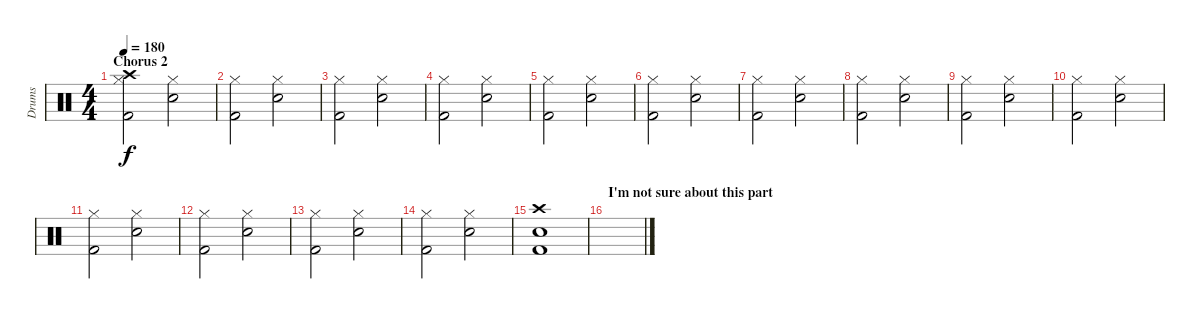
\track ("Drums" "Drums") {instrument percussion}
\staff {score}
\articulation defaults
\ts (4 4)
\section ("" "Chorus 2")
\tempo 180
\clef neutral
\ks c
("Crash high (hit)" "Hi-Hat (closed)" "Kick (hit) 2").2{dy f} ("Hi-Hat (closed)" "Snare (hit) 2").2 |
("Hi-Hat (closed)" "Kick (hit) 2").2 ("Hi-Hat (closed)" "Snare (hit) 2").2 |
("Hi-Hat (closed)" "Kick (hit) 2").2 ("Hi-Hat (closed)" "Snare (hit) 2").2 |
("Hi-Hat (closed)" "Kick (hit) 2").2 ("Hi-Hat (closed)" "Snare (hit) 2").2 |
("Hi-Hat (closed)" "Kick (hit) 2").2 ("Hi-Hat (closed)" "Snare (hit) 2").2 |
("Hi-Hat (closed)" "Kick (hit) 2").2 ("Hi-Hat (closed)" "Snare (hit) 2").2 |
("Hi-Hat (closed)" "Kick (hit) 2").2 ("Hi-Hat (closed)" "Snare (hit) 2").2 |
("Hi-Hat (closed)" "Kick (hit) 2").2 ("Hi-Hat (closed)" "Snare (hit) 2").2 |
("Hi-Hat (closed)" "Kick (hit) 2").2 ("Hi-Hat (closed)" "Snare (hit) 2").2 |
("Hi-Hat (closed)" "Kick (hit) 2").2 ("Hi-Hat (closed)" "Snare (hit) 2").2 |
("Hi-Hat (closed)" "Kick (hit) 2").2 ("Hi-Hat (closed)" "Snare (hit) 2").2 |
("Hi-Hat (closed)" "Kick (hit) 2").2 ("Hi-Hat (closed)" "Snare (hit) 2").2 |
("Hi-Hat (closed)" "Kick (hit) 2").2 ("Hi-Hat (closed)" "Snare (hit) 2").2 |
("Hi-Hat (closed)" "Kick (hit) 2").2 ("Hi-Hat (closed)" "Snare (hit) 2").2 |
("Crash high (hit)" "Snare (hit) 2" "Kick (hit) 2").1 |
\section ("" "I'm not sure about this part")
